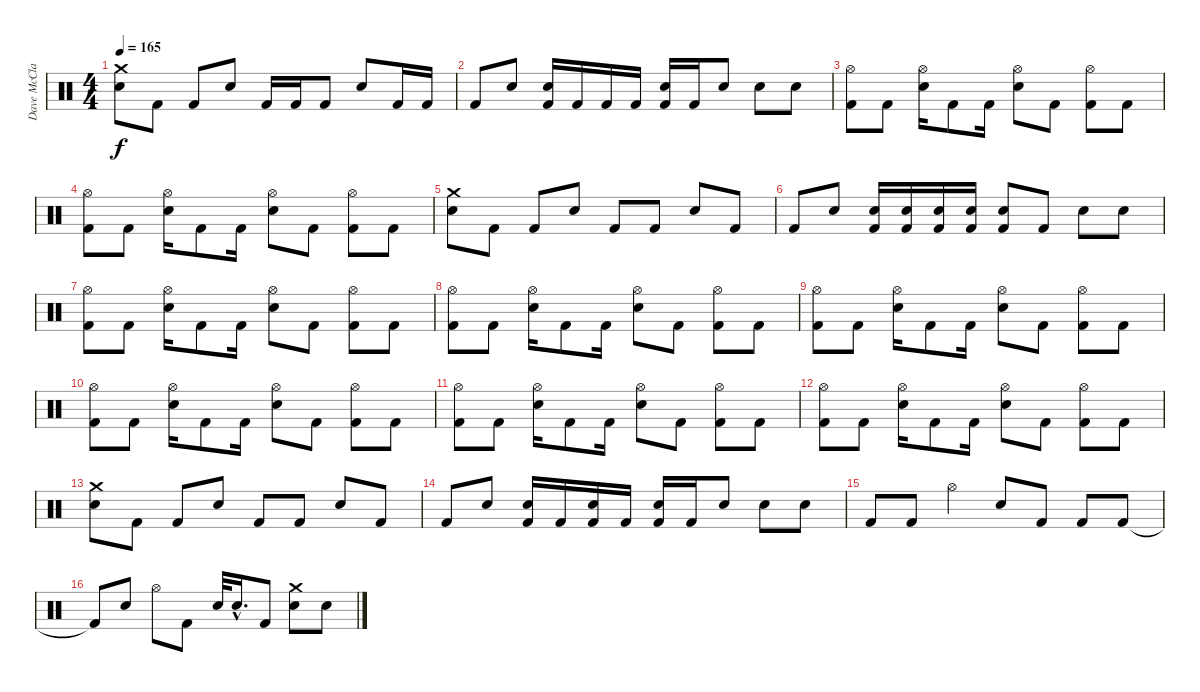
\track ("Dave McClain" "Dave McCla") {instrument percussion}
\staff {score}
\articulation defaults
\ts (4 4)
\tempo 165
\clef neutral
\ks c
("Crash medium (hit)" "Electric Snare (hit)").8{dy f} "Kick (hit) 2".8 "Kick (hit) 2".8 "Electric Snare (hit)".8 "Kick (hit) 2".16 "Kick (hit) 2".16 "Kick (hit) 2".8 "Electric Snare (hit)".8 "Kick (hit) 2".16 "Kick (hit) 2".16 |
"Kick (hit) 2".8 "Electric Snare (hit)".8 ("Electric Snare (hit)" "Kick (hit) 2").16 "Kick (hit) 2".16 "Kick (hit) 2".16 "Kick (hit) 2".16 ("Electric Snare (hit)" "Kick (hit) 2").16 "Kick (hit) 2".16 "Electric Snare (hit)".8 "Electric Snare (hit)".8 "Electric Snare (hit)".8 |
("Hi-Hat (open)" "Kick (hit) 2").8 "Kick (hit) 2".8 ("Hi-Hat (open)" "Electric Snare (hit)").16 "Kick (hit) 2".8 "Kick (hit) 2".16 ("Hi-Hat (open)" "Electric Snare (hit)").8 "Kick (hit) 2".8 ("Hi-Hat (open)" "Kick (hit) 2").8 "Kick (hit) 2".8 |
("Hi-Hat (open)" "Kick (hit) 2").8 "Kick (hit) 2".8 ("Hi-Hat (open)" "Electric Snare (hit)").16 "Kick (hit) 2".8 "Kick (hit) 2".16 ("Hi-Hat (open)" "Electric Snare (hit)").8 "Kick (hit) 2".8 ("Hi-Hat (open)" "Kick (hit) 2").8 "Kick (hit) 2".8 |
("Crash medium (hit)" "Electric Snare (hit)").8 "Kick (hit) 2".8 "Kick (hit) 2".8 "Electric Snare (hit)".8 "Kick (hit) 2".8 "Kick (hit) 2".8 "Electric Snare (hit)".8 "Kick (hit) 2".8 |
"Kick (hit) 2".8 "Electric Snare (hit)".8 ("Electric Snare (hit)" "Kick (hit) 2").16 ("Electric Snare (hit)" "Kick (hit) 2").16 ("Electric Snare (hit)" "Kick (hit) 2").16 ("Electric Snare (hit)" "Kick (hit) 2").16 ("Electric Snare (hit)" "Kick (hit) 2").8 "Kick (hit) 2".8 "Electric Snare (hit)".8 "Electric Snare (hit)".8 |
("Hi-Hat (open)" "Kick (hit) 2").8 "Kick (hit) 2".8 ("Hi-Hat (open)" "Electric Snare (hit)").16 "Kick (hit) 2".8 "Kick (hit) 2".16 ("Hi-Hat (open)" "Electric Snare (hit)").8 "Kick (hit) 2".8 ("Hi-Hat (open)" "Kick (hit) 2").8 "Kick (hit) 2".8 |
("Hi-Hat (open)" "Kick (hit) 2").8 "Kick (hit) 2".8 ("Hi-Hat (open)" "Electric Snare (hit)").16 "Kick (hit) 2".8 "Kick (hit) 2".16 ("Hi-Hat (open)" "Electric Snare (hit)").8 "Kick (hit) 2".8 ("Hi-Hat (open)" "Kick (hit) 2").8 "Kick (hit) 2".8 |
("Hi-Hat (open)" "Kick (hit) 2").8 "Kick (hit) 2".8 ("Hi-Hat (open)" "Electric Snare (hit)").16 "Kick (hit) 2".8 "Kick (hit) 2".16 ("Hi-Hat (open)" "Electric Snare (hit)").8 "Kick (hit) 2".8 ("Hi-Hat (open)" "Kick (hit) 2").8 "Kick (hit) 2".8 |
("Hi-Hat (open)" "Kick (hit) 2").8 "Kick (hit) 2".8 ("Hi-Hat (open)" "Electric Snare (hit)").16 "Kick (hit) 2".8 "Kick (hit) 2".16 ("Hi-Hat (open)" "Electric Snare (hit)").8 "Kick (hit) 2".8 ("Hi-Hat (open)" "Kick (hit) 2").8 "Kick (hit) 2".8 |
("Hi-Hat (open)" "Kick (hit) 2").8 "Kick (hit) 2".8 ("Hi-Hat (open)" "Electric Snare (hit)").16 "Kick (hit) 2".8 "Kick (hit) 2".16 ("Hi-Hat (open)" "Electric Snare (hit)").8 "Kick (hit) 2".8 ("Hi-Hat (open)" "Kick (hit) 2").8 "Kick (hit) 2".8 |
("Hi-Hat (open)" "Kick (hit) 2").8 "Kick (hit) 2".8 ("Hi-Hat (open)" "Electric Snare (hit)").16 "Kick (hit) 2".8 "Kick (hit) 2".16 ("Hi-Hat (open)" "Electric Snare (hit)").8 "Kick (hit) 2".8 ("Hi-Hat (open)" "Kick (hit) 2").8 "Kick (hit) 2".8 |
("Crash medium (hit)" "Electric Snare (hit)").8 "Kick (hit) 2".8 "Kick (hit) 2".8 "Electric Snare (hit)".8 "Kick (hit) 2".8 "Kick (hit) 2".8 "Electric Snare (hit)".8 "Kick (hit) 2".8 |
"Kick (hit) 2".8 "Electric Snare (hit)".8 ("Electric Snare (hit)" "Kick (hit) 2").16 "Kick (hit) 2".16 ("Electric Snare (hit)" "Kick (hit) 2").16 "Kick (hit) 2".16 ("Electric Snare (hit)" "Kick (hit) 2").16 "Kick (hit) 2".16 "Electric Snare (hit)".8 "Electric Snare (hit)".8 "Electric Snare (hit)".8 |
"Kick (hit) 2".8 "Kick (hit) 2".8 "Hi-Hat (open)".4 "Electric Snare (hit)".8 "Kick (hit) 2".8 "Kick (hit) 2".8 "Kick (hit) 2".8 |
"Kick (hit) 2"{t}.8 "Electric Snare (hit)".8 "Hi-Hat (open)".8 "Kick (hit) 2".8 "Electric Snare (hit)".32 "Electric Snare (hit)"{hac}.16{d} "Kick (hit) 2".8 ("Crash medium (hit)" "Electric Snare (hit)").8 "Electric Snare (hit)".8
